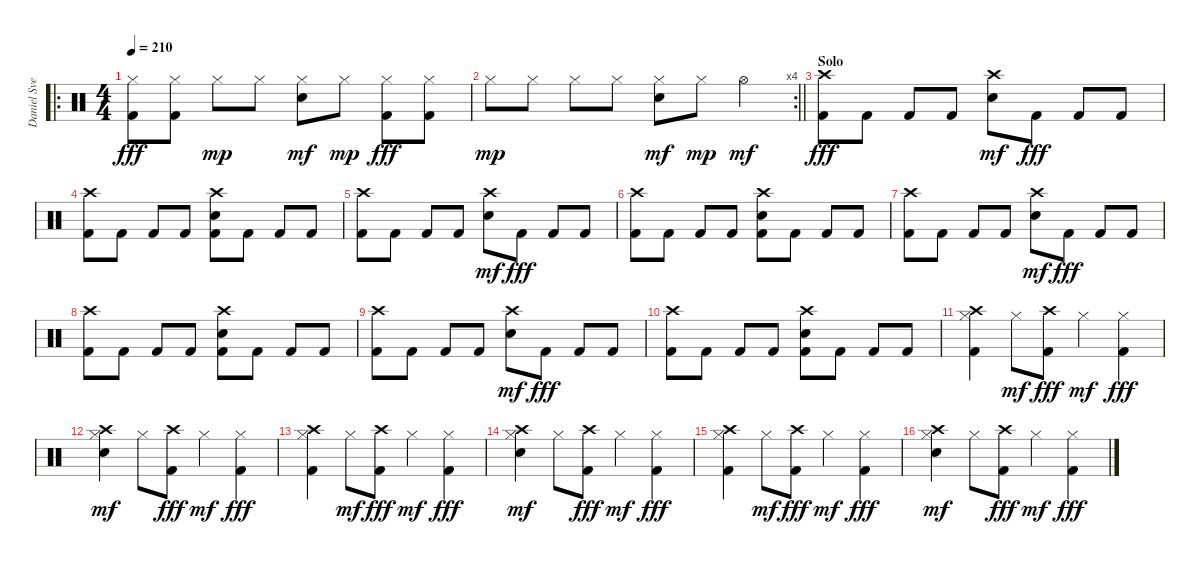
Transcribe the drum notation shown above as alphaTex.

\track ("Daniel Svensson" "Daniel Sve") {instrument percussion}
\staff {score}
\articulation defaults
\ro
\ts (4 4)
\tempo 210
\clef neutral
\ks c
("Hi-Hat (closed)" "Kick (hit) 2").8{dy fff} ("Hi-Hat (closed)" "Kick (hit) 2").8 "Hi-Hat (closed)".8{dy mp} "Hi-Hat (closed)".8 ("Hi-Hat (closed)" "Electric Snare (hit)").8{dy mf} "Hi-Hat (closed)".8{dy mp} ("Hi-Hat (closed)" "Kick (hit) 2").8{dy fff} ("Hi-Hat (closed)" "Kick (hit) 2").8 |
\rc 4
\barLineRight lightlight "Hi-Hat (closed)".8{dy mp} "Hi-Hat (closed)".8 "Hi-Hat (closed)".8 "Hi-Hat (closed)".8
("Hi-Hat (closed)" "Electric Snare (hit)").8{dy mf} "Hi-Hat (closed)".8{dy mp} "Hi-Hat (open)".4{dy mf} |
\section ("" "Solo")
("Crash high (hit)" "Kick (hit) 2").8{dy fff} "Kick (hit) 2".8 "Kick (hit) 2".8 "Kick (hit) 2".8 ("Crash high (hit)" "Electric Snare (hit)").8{dy mf} "Kick (hit) 2".8{dy fff} "Kick (hit) 2".8 "Kick (hit) 2".8 |
("Crash high (hit)" "Kick (hit) 2").8 "Kick (hit) 2".8 "Kick (hit) 2".8 "Kick (hit) 2".8 ("Crash high (hit)" "Electric Snare (hit)" "Kick (hit) 2").8 "Kick (hit) 2".8 "Kick (hit) 2".8 "Kick (hit) 2".8 |
("Crash high (hit)" "Kick (hit) 2").8 "Kick (hit) 2".8 "Kick (hit) 2".8 "Kick (hit) 2".8 ("Crash high (hit)" "Electric Snare (hit)").8{dy mf} "Kick (hit) 2".8{dy fff} "Kick (hit) 2".8 "Kick (hit) 2".8 |
("Crash high (hit)" "Kick (hit) 2").8 "Kick (hit) 2".8 "Kick (hit) 2".8 "Kick (hit) 2".8 ("Crash high (hit)" "Electric Snare (hit)" "Kick (hit) 2").8 "Kick (hit) 2".8 "Kick (hit) 2".8 "Kick (hit) 2".8 |
("Crash high (hit)" "Kick (hit) 2").8 "Kick (hit) 2".8 "Kick (hit) 2".8 "Kick (hit) 2".8 ("Crash high (hit)" "Electric Snare (hit)").8{dy mf} "Kick (hit) 2".8{dy fff} "Kick (hit) 2".8 "Kick (hit) 2".8 |
("Crash high (hit)" "Kick (hit) 2").8 "Kick (hit) 2".8 "Kick (hit) 2".8 "Kick (hit) 2".8 ("Crash high (hit)" "Electric Snare (hit)" "Kick (hit) 2").8 "Kick (hit) 2".8 "Kick (hit) 2".8 "Kick (hit) 2".8 |
("Crash high (hit)" "Kick (hit) 2").8 "Kick (hit) 2".8 "Kick (hit) 2".8 "Kick (hit) 2".8 ("Crash high (hit)" "Electric Snare (hit)").8{dy mf} "Kick (hit) 2".8{dy fff} "Kick (hit) 2".8 "Kick (hit) 2".8 |
("Crash high (hit)" "Kick (hit) 2").8 "Kick (hit) 2".8 "Kick (hit) 2".8 "Kick (hit) 2".8 ("Crash high (hit)" "Electric Snare (hit)" "Kick (hit) 2").8 "Kick (hit) 2".8 "Kick (hit) 2".8 "Kick (hit) 2".8 |
("Crash high (hit)" "Hi-Hat (closed)" "Kick (hit) 2").4 "Hi-Hat (closed)".8{dy mf} ("Crash high (hit)" "Kick (hit) 2").8{dy fff} "Hi-Hat (closed)".4{dy mf} ("Hi-Hat (closed)" "Kick (hit) 2").4{dy fff} |
("Crash high (hit)" "Hi-Hat (closed)" "Electric Snare (hit)").4{dy mf} "Hi-Hat (closed)".8 ("Crash high (hit)" "Kick (hit) 2").8{dy fff} "Hi-Hat (closed)".4{dy mf} ("Hi-Hat (closed)" "Kick (hit) 2").4{dy fff} |
("Crash high (hit)" "Hi-Hat (closed)" "Kick (hit) 2").4 "Hi-Hat (closed)".8{dy mf} ("Crash high (hit)" "Kick (hit) 2").8{dy fff} "Hi-Hat (closed)".4{dy mf} ("Hi-Hat (closed)" "Kick (hit) 2").4{dy fff} |
("Crash high (hit)" "Hi-Hat (closed)" "Electric Snare (hit)").4{dy mf} "Hi-Hat (closed)".8 ("Crash high (hit)" "Kick (hit) 2").8{dy fff} "Hi-Hat (closed)".4{dy mf} ("Hi-Hat (closed)" "Kick (hit) 2").4{dy fff} |
("Crash high (hit)" "Hi-Hat (closed)" "Kick (hit) 2").4 "Hi-Hat (closed)".8{dy mf} ("Crash high (hit)" "Kick (hit) 2").8{dy fff} "Hi-Hat (closed)".4{dy mf} ("Hi-Hat (closed)" "Kick (hit) 2").4{dy fff} |
("Crash high (hit)" "Hi-Hat (closed)" "Electric Snare (hit)").4{dy mf} "Hi-Hat (closed)".8 ("Crash high (hit)" "Kick (hit) 2").8{dy fff} "Hi-Hat (closed)".4{dy mf} ("Hi-Hat (closed)" "Kick (hit) 2").4{dy fff}
